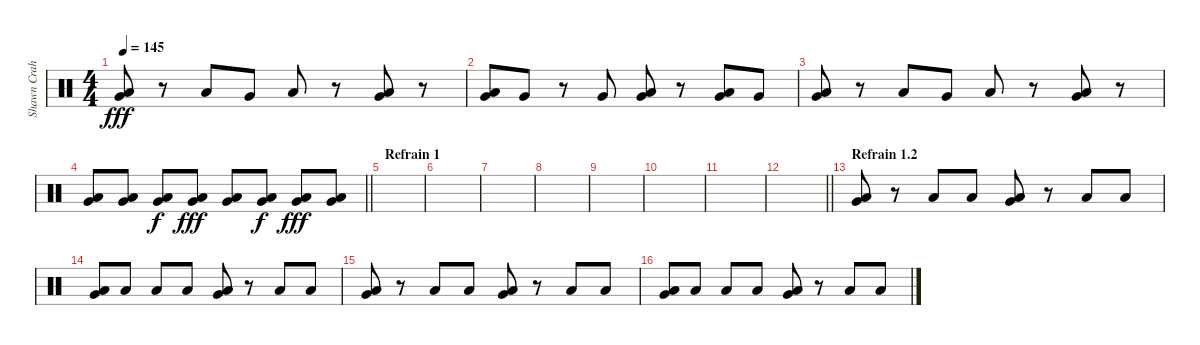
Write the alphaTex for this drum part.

\track ("Shawn Crahan" "Shawn Crah") {instrument percussion}
\staff {score}
\articulation defaults
\ts (4 4)
\tempo 145
\clef neutral
\ks c
("Very Low Tom (hit)" "Low Floor Tom (hit)").8{dy fff} r.8 "Low Floor Tom (hit)".8 "Very Low Tom (hit)".8 "Low Floor Tom (hit)".8 r.8 ("Very Low Tom (hit)" "Low Floor Tom (hit)").8 r.8 |
("Very Low Tom (hit)" "Low Floor Tom (hit)").8 "Very Low Tom (hit)".8 r.8 "Very Low Tom (hit)".8 ("Very Low Tom (hit)" "Low Floor Tom (hit)").8 r.8 ("Very Low Tom (hit)" "Low Floor Tom (hit)").8 "Very Low Tom (hit)".8 |
("Very Low Tom (hit)" "Low Floor Tom (hit)").8 r.8 "Low Floor Tom (hit)".8 "Very Low Tom (hit)".8 "Low Floor Tom (hit)".8 r.8 ("Very Low Tom (hit)" "Low Floor Tom (hit)").8 r.8 |
\barLineRight lightlight
("Very Low Tom (hit)" "Low Floor Tom (hit)").8 ("Very Low Tom (hit)" "Low Floor Tom (hit)").8 ("Very Low Tom (hit)" "Low Floor Tom (hit)").8{dy f} ("Very Low Tom (hit)" "Low Floor Tom (hit)").8{dy fff} ("Very Low Tom (hit)" "Low Floor Tom (hit)").8 ("Very Low Tom (hit)" "Low Floor Tom (hit)").8{dy f} ("Very Low Tom (hit)" "Low Floor Tom (hit)").8{dy fff} ("Very Low Tom (hit)" "Low Floor Tom (hit)").8 |
\section ("" "Refrain 1")
|
|
|
|
|
|
|
\barLineRight lightlight
|
\section ("" "Refrain 1.2")
("Very Low Tom (hit)" "Low Floor Tom (hit)").8 r.8 "Low Floor Tom (hit)".8 "Low Floor Tom (hit)".8 ("Very Low Tom (hit)" "Low Floor Tom (hit)").8 r.8 "Low Floor Tom (hit)".8 "Low Floor Tom (hit)".8 |
("Very Low Tom (hit)" "Low Floor Tom (hit)").8 "Low Floor Tom (hit)".8 "Low Floor Tom (hit)".8 "Low Floor Tom (hit)".8 ("Very Low Tom (hit)" "Low Floor Tom (hit)").8 r.8 "Low Floor Tom (hit)".8 "Low Floor Tom (hit)".8 |
("Very Low Tom (hit)" "Low Floor Tom (hit)").8 r.8 "Low Floor Tom (hit)".8 "Low Floor Tom (hit)".8 ("Very Low Tom (hit)" "Low Floor Tom (hit)").8 r.8 "Low Floor Tom (hit)".8 "Low Floor Tom (hit)".8 |
("Very Low Tom (hit)" "Low Floor Tom (hit)").8 "Low Floor Tom (hit)".8 "Low Floor Tom (hit)".8 "Low Floor Tom (hit)".8 ("Very Low Tom (hit)" "Low Floor Tom (hit)").8 r.8 "Low Floor Tom (hit)".8 "Low Floor Tom (hit)".8
